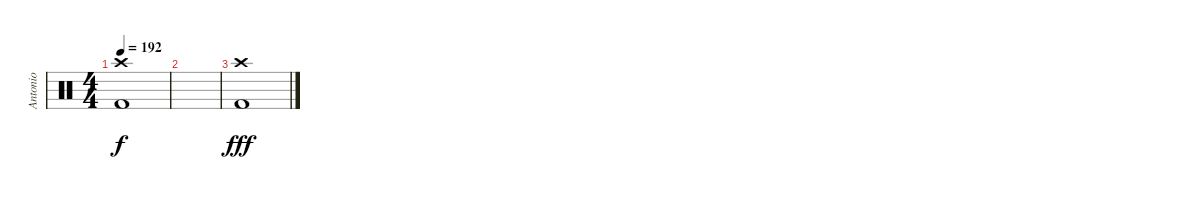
\track ("Antonio" "Antonio") {instrument percussion}
\staff {score}
\articulation defaults
\ts (4 4)
\tempo 192
\clef neutral
\ks c
("Crash high (hit)" "Kick (hit) 2").1{dy f} |
|
("Crash high (hit)" "Kick (hit) 2").1{dy fff}
